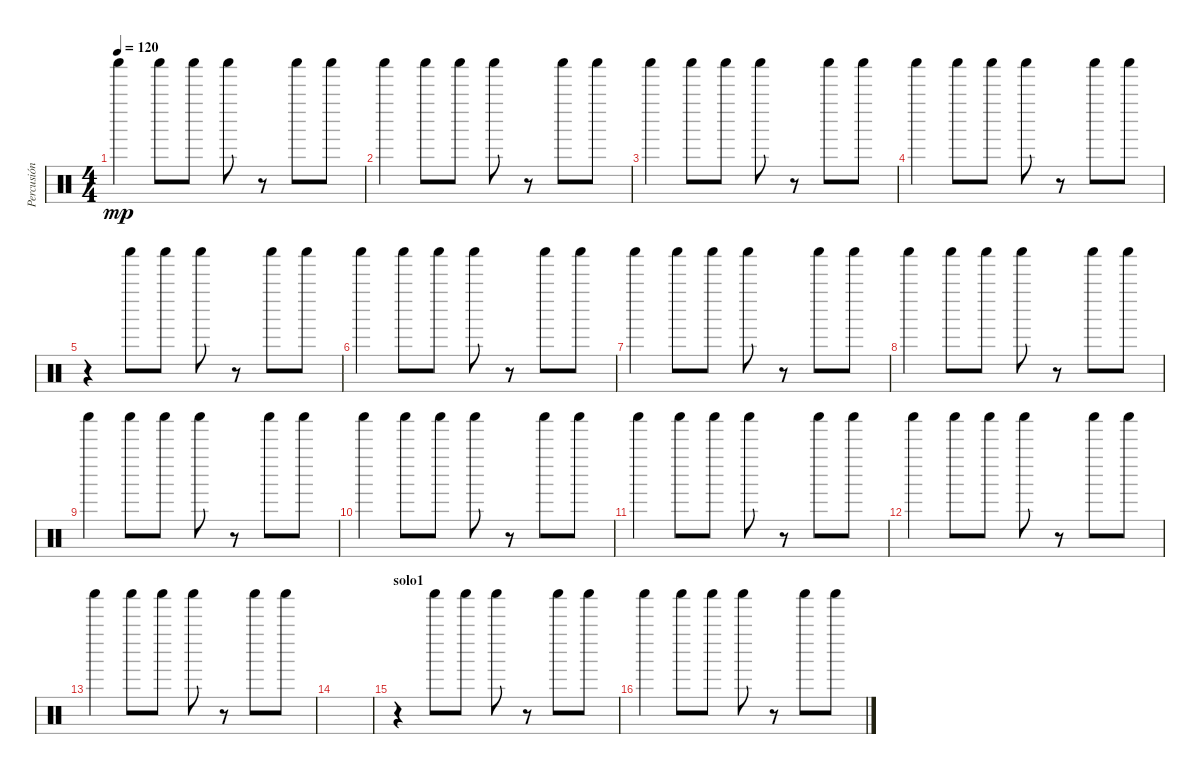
\track ("Percusión" "Percusión") {instrument percussion}
\staff {score}
\articulation defaults
\ts (4 4)
\tempo 120
\clef neutral
\ks c "Shaker (hit)".4{dy mp} "Shaker (hit)".8 "Shaker (hit)".8 "Shaker (hit)".8
r.8 "Shaker (hit)".8 "Shaker (hit)".8 |
"Shaker (hit)".4 "Shaker (hit)".8 "Shaker (hit)".8 "Shaker (hit)".8 r.8 "Shaker (hit)".8 "Shaker (hit)".8 |
"Shaker (hit)".4 "Shaker (hit)".8 "Shaker (hit)".8 "Shaker (hit)".8 r.8 "Shaker (hit)".8 "Shaker (hit)".8 |
"Shaker (hit)".4 "Shaker (hit)".8 "Shaker (hit)".8 "Shaker (hit)".8 r.8 "Shaker (hit)".8 "Shaker (hit)".8 |
r.4 "Shaker (hit)".8 "Shaker (hit)".8 "Shaker (hit)".8 r.8 "Shaker (hit)".8 "Shaker (hit)".8 |
"Shaker (hit)".4 "Shaker (hit)".8 "Shaker (hit)".8 "Shaker (hit)".8 r.8 "Shaker (hit)".8 "Shaker (hit)".8 |
"Shaker (hit)".4 "Shaker (hit)".8 "Shaker (hit)".8 "Shaker (hit)".8 r.8 "Shaker (hit)".8 "Shaker (hit)".8 |
"Shaker (hit)".4 "Shaker (hit)".8 "Shaker (hit)".8 "Shaker (hit)".8 r.8 "Shaker (hit)".8 "Shaker (hit)".8 |
"Shaker (hit)".4 "Shaker (hit)".8 "Shaker (hit)".8 "Shaker (hit)".8 r.8 "Shaker (hit)".8 "Shaker (hit)".8 |
"Shaker (hit)".4 "Shaker (hit)".8 "Shaker (hit)".8 "Shaker (hit)".8 r.8 "Shaker (hit)".8 "Shaker (hit)".8 |
"Shaker (hit)".4 "Shaker (hit)".8 "Shaker (hit)".8 "Shaker (hit)".8 r.8 "Shaker (hit)".8 "Shaker (hit)".8 |
"Shaker (hit)".4 "Shaker (hit)".8 "Shaker (hit)".8 "Shaker (hit)".8 r.8 "Shaker (hit)".8 "Shaker (hit)".8 |
"Shaker (hit)".4 "Shaker (hit)".8 "Shaker (hit)".8 "Shaker (hit)".8 r.8 "Shaker (hit)".8 "Shaker (hit)".8 |
|
\section ("" "solo1")
r.4 "Shaker (hit)".8 "Shaker (hit)".8 "Shaker (hit)".8 r.8 "Shaker (hit)".8 "Shaker (hit)".8 |
"Shaker (hit)".4 "Shaker (hit)".8 "Shaker (hit)".8 "Shaker (hit)".8 r.8 "Shaker (hit)".8 "Shaker (hit)".8
